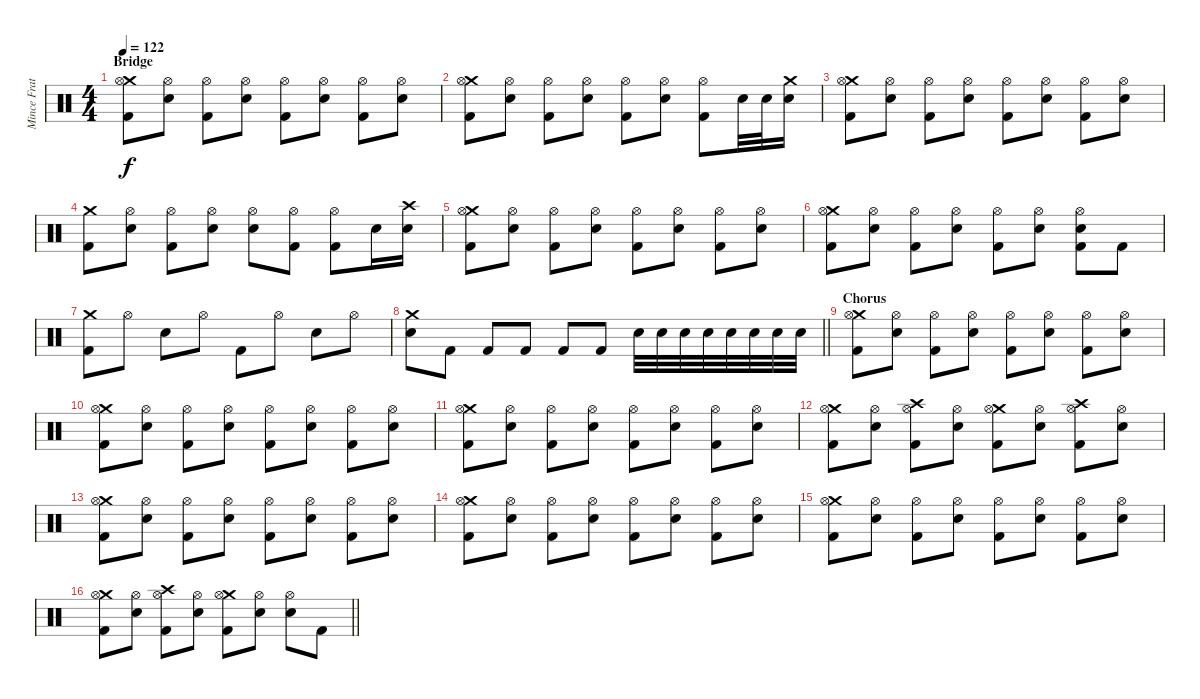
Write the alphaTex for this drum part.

\track ("Mince Fratelli" "Mince Frat") {instrument percussion}
\staff {score}
\articulation defaults
\ts (4 4)
\section ("" "Bridge")
\tempo 122
\clef neutral
\ks c
("Crash medium (hit)" "Hi-Hat (open)" "Kick (hit) 2").8{dy f} ("Hi-Hat (open)" "Snare (hit) 2").8 ("Hi-Hat (open)" "Kick (hit) 2").8 ("Hi-Hat (open)" "Snare (hit) 2").8 ("Hi-Hat (open)" "Kick (hit) 2").8 ("Hi-Hat (open)" "Snare (hit) 2").8 ("Hi-Hat (open)" "Kick (hit) 2").8 ("Hi-Hat (open)" "Snare (hit) 2").8 |
("Crash medium (hit)" "Hi-Hat (open)" "Kick (hit) 2").8 ("Hi-Hat (open)" "Snare (hit) 2").8 ("Hi-Hat (open)" "Kick (hit) 2").8 ("Hi-Hat (open)" "Snare (hit) 2").8 ("Hi-Hat (open)" "Kick (hit) 2").8 ("Hi-Hat (open)" "Snare (hit) 2").8 ("Hi-Hat (open)" "Kick (hit) 2").8 "Snare (hit) 2".32 "Snare (hit) 2".32 ("Crash medium (hit)" "Snare (hit) 2").16 |
("Crash medium (hit)" "Hi-Hat (open)" "Kick (hit) 2").8 ("Hi-Hat (open)" "Snare (hit) 2").8 ("Hi-Hat (open)" "Kick (hit) 2").8 ("Hi-Hat (open)" "Snare (hit) 2").8 ("Hi-Hat (open)" "Kick (hit) 2").8 ("Hi-Hat (open)" "Snare (hit) 2").8 ("Hi-Hat (open)" "Kick (hit) 2").8 ("Hi-Hat (open)" "Snare (hit) 2").8 |
("Crash medium (hit)" "Kick (hit) 2").8 ("Hi-Hat (open)" "Snare (hit) 2").8 ("Hi-Hat (open)" "Kick (hit) 2").8 ("Hi-Hat (open)" "Snare (hit) 2").8 ("Hi-Hat (open)" "Snare (hit) 2").8 ("Hi-Hat (open)" "Kick (hit) 2").8 ("Hi-Hat (open)" "Kick (hit) 2").8 "Snare (hit) 2".16 ("Crash high (hit)" "Snare (hit) 2").16 |
("Crash medium (hit)" "Hi-Hat (open)" "Kick (hit) 2").8 ("Hi-Hat (open)" "Snare (hit) 2").8 ("Hi-Hat (open)" "Kick (hit) 2").8 ("Hi-Hat (open)" "Snare (hit) 2").8 ("Hi-Hat (open)" "Kick (hit) 2").8 ("Hi-Hat (open)" "Snare (hit) 2").8 ("Hi-Hat (open)" "Kick (hit) 2").8 ("Hi-Hat (open)" "Snare (hit) 2").8 |
("Crash medium (hit)" "Hi-Hat (open)" "Kick (hit) 2").8 ("Hi-Hat (open)" "Snare (hit) 2").8 ("Hi-Hat (open)" "Kick (hit) 2").8 ("Hi-Hat (open)" "Snare (hit) 2").8 ("Hi-Hat (open)" "Kick (hit) 2").8 ("Hi-Hat (open)" "Snare (hit) 2").8 ("Hi-Hat (open)" "Snare (hit) 2" "Kick (hit) 2").8 "Kick (hit) 2".8 |
("Crash medium (hit)" "Kick (hit) 2").8 "Hi-Hat (open)".8 "Snare (hit) 2".8 "Hi-Hat (open)".8 "Kick (hit) 2".8 "Hi-Hat (open)".8 "Snare (hit) 2".8 "Hi-Hat (open)".8 |
\barLineRight lightlight
("Crash medium (hit)" "Snare (hit) 2").8 "Kick (hit) 2".8 "Kick (hit) 2".8 "Kick (hit) 2".8 "Kick (hit) 2".8 "Kick (hit) 2".8 "Snare (hit) 2".32 "Snare (hit) 2".32 "Snare (hit) 2".32 "Snare (hit) 2".32 "Snare (hit) 2".32 "Snare (hit) 2".32 "Snare (hit) 2".32 "Snare (hit) 2".32 |
\section ("" "Chorus")
("Crash medium (hit)" "Hi-Hat (open)" "Kick (hit) 2").8 ("Hi-Hat (open)" "Snare (hit) 2").8 ("Hi-Hat (open)" "Kick (hit) 2").8 ("Hi-Hat (open)" "Snare (hit) 2").8 ("Hi-Hat (open)" "Kick (hit) 2").8 ("Hi-Hat (open)" "Snare (hit) 2").8 ("Hi-Hat (open)" "Kick (hit) 2").8 ("Hi-Hat (open)" "Snare (hit) 2").8 |
("Crash medium (hit)" "Hi-Hat (open)" "Kick (hit) 2").8 ("Hi-Hat (open)" "Snare (hit) 2").8 ("Hi-Hat (open)" "Kick (hit) 2").8 ("Hi-Hat (open)" "Snare (hit) 2").8 ("Hi-Hat (open)" "Kick (hit) 2").8 ("Hi-Hat (open)" "Snare (hit) 2").8 ("Hi-Hat (open)" "Kick (hit) 2").8 ("Hi-Hat (open)" "Snare (hit) 2").8 |
("Crash medium (hit)" "Hi-Hat (open)" "Kick (hit) 2").8 ("Hi-Hat (open)" "Snare (hit) 2").8 ("Hi-Hat (open)" "Kick (hit) 2").8 ("Hi-Hat (open)" "Snare (hit) 2").8 ("Hi-Hat (open)" "Kick (hit) 2").8 ("Hi-Hat (open)" "Snare (hit) 2").8 ("Hi-Hat (open)" "Kick (hit) 2").8 ("Hi-Hat (open)" "Snare (hit) 2").8 |
("Crash medium (hit)" "Hi-Hat (open)" "Kick (hit) 2").8 ("Hi-Hat (open)" "Snare (hit) 2").8 ("Crash high (hit)" "Hi-Hat (open)" "Kick (hit) 2").8 ("Hi-Hat (open)" "Snare (hit) 2").8 ("Crash medium (hit)" "Hi-Hat (open)" "Kick (hit) 2").8 ("Hi-Hat (open)" "Snare (hit) 2").8 ("Crash high (hit)" "Hi-Hat (open)" "Kick (hit) 2").8 ("Hi-Hat (open)" "Snare (hit) 2").8 |
("Crash medium (hit)" "Hi-Hat (open)" "Kick (hit) 2").8 ("Hi-Hat (open)" "Snare (hit) 2").8 ("Hi-Hat (open)" "Kick (hit) 2").8 ("Hi-Hat (open)" "Snare (hit) 2").8 ("Hi-Hat (open)" "Kick (hit) 2").8 ("Hi-Hat (open)" "Snare (hit) 2").8 ("Hi-Hat (open)" "Kick (hit) 2").8 ("Hi-Hat (open)" "Snare (hit) 2").8 |
("Crash medium (hit)" "Hi-Hat (open)" "Kick (hit) 2").8 ("Hi-Hat (open)" "Snare (hit) 2").8 ("Hi-Hat (open)" "Kick (hit) 2").8 ("Hi-Hat (open)" "Snare (hit) 2").8 ("Hi-Hat (open)" "Kick (hit) 2").8 ("Hi-Hat (open)" "Snare (hit) 2").8 ("Hi-Hat (open)" "Kick (hit) 2").8 ("Hi-Hat (open)" "Snare (hit) 2").8 |
("Crash medium (hit)" "Hi-Hat (open)" "Kick (hit) 2").8 ("Hi-Hat (open)" "Snare (hit) 2").8 ("Hi-Hat (open)" "Kick (hit) 2").8 ("Hi-Hat (open)" "Snare (hit) 2").8 ("Hi-Hat (open)" "Kick (hit) 2").8 ("Hi-Hat (open)" "Snare (hit) 2").8 ("Hi-Hat (open)" "Kick (hit) 2").8 ("Hi-Hat (open)" "Snare (hit) 2").8 |
\barLineRight lightlight
("Crash medium (hit)" "Hi-Hat (open)" "Kick (hit) 2").8 ("Hi-Hat (open)" "Snare (hit) 2").8 ("Crash high (hit)" "Hi-Hat (open)" "Kick (hit) 2").8 ("Hi-Hat (open)" "Snare (hit) 2").8 ("Crash medium (hit)" "Hi-Hat (open)" "Kick (hit) 2").8 ("Hi-Hat (open)" "Snare (hit) 2").8 ("Hi-Hat (open)" "Snare (hit) 2").8 "Kick (hit) 2".8
